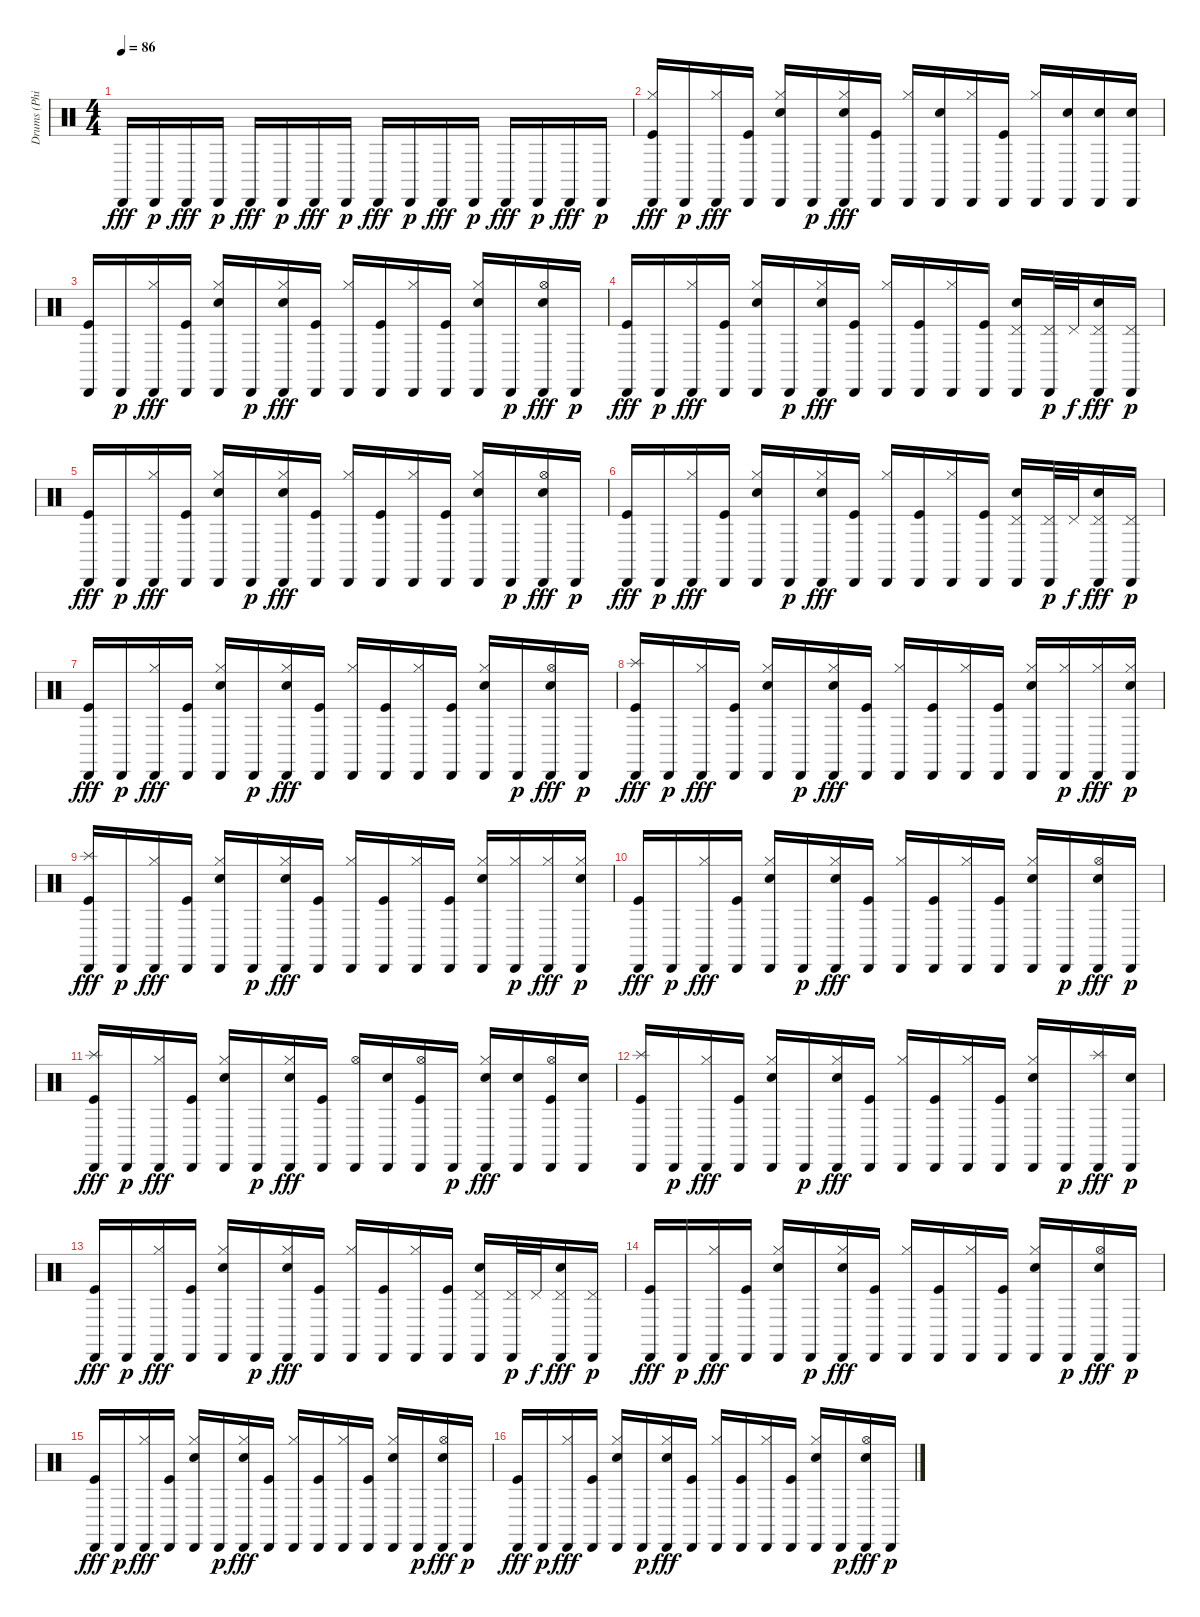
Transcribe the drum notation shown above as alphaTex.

\track ("Drums (Phil)" "Drums (Phi") {instrument percussion}
\staff {score}
\articulation defaults
\ts (4 4)
\tempo 86
\clef neutral
\ks c "Cabasa (hit)".16{dy fff} "Cabasa (hit)".16{dy p} "Cabasa (hit)".16{dy fff} "Cabasa (hit)".16{dy p} "Cabasa (hit)".16{dy fff} "Cabasa (hit)".16{dy p} "Cabasa (hit)".16{dy fff} "Cabasa (hit)".16{dy p} "Cabasa (hit)".16{dy fff} "Cabasa (hit)".16{dy p} "Cabasa (hit)".16{dy fff} "Cabasa (hit)".16{dy p} "Cabasa (hit)".16{dy fff} "Cabasa (hit)".16{dy p} "Cabasa (hit)".16{dy fff} "Cabasa (hit)".16{dy p}
|
("Cabasa (hit)" "Hi-Hat (closed)" "Kick (hit)").16{dy fff} "Cabasa (hit)".16{dy p} ("Cabasa (hit)" "Hi-Hat (closed)").16{dy fff} ("Cabasa (hit)" "Kick (hit)").16 ("Cabasa (hit)" "Hi-Hat (closed)" "Snare (hit) 2").16 "Cabasa (hit)".16{dy p} ("Cabasa (hit)" "Hi-Hat (closed)" "Snare (hit) 2").16{dy fff} ("Cabasa (hit)" "Kick (hit)").16 ("Cabasa (hit)" "Hi-Hat (closed)").16 ("Cabasa (hit)" "Snare (hit) 2").16 ("Cabasa (hit)" "Hi-Hat (closed)").16 ("Cabasa (hit)" "Kick (hit)").16 ("Cabasa (hit)" "Hi-Hat (closed)").16 ("Cabasa (hit)" "Snare (hit) 2").16 ("Cabasa (hit)" "Snare (hit) 2").16 ("Cabasa (hit)" "Snare (hit) 2").16 |
("Cabasa (hit)" "Kick (hit)").16 "Cabasa (hit)".16{dy p} ("Cabasa (hit)" "Hi-Hat (closed)").16{dy fff} ("Cabasa (hit)" "Kick (hit)").16 ("Cabasa (hit)" "Hi-Hat (closed)" "Snare (hit) 2").16 "Cabasa (hit)".16{dy p} ("Cabasa (hit)" "Hi-Hat (closed)" "Snare (hit) 2").16{dy fff} ("Cabasa (hit)" "Kick (hit)").16 ("Cabasa (hit)" "Hi-Hat (closed)").16 ("Cabasa (hit)" "Kick (hit)").16 ("Cabasa (hit)" "Hi-Hat (closed)").16 ("Cabasa (hit)" "Kick (hit)").16 ("Cabasa (hit)" "Hi-Hat (closed)" "Snare (hit) 2").16 "Cabasa (hit)".16{dy p} ("Cabasa (hit)" "Hi-Hat (open)" "Snare (hit) 2").16{dy fff} "Cabasa (hit)".16{dy p} |
("Cabasa (hit)" "Kick (hit)").16{dy fff} "Cabasa (hit)".16{dy p} ("Cabasa (hit)" "Hi-Hat (closed)").16{dy fff} ("Cabasa (hit)" "Kick (hit)").16 ("Cabasa (hit)" "Hi-Hat (closed)" "Snare (hit) 2").16 "Cabasa (hit)".16{dy p} ("Cabasa (hit)" "Hi-Hat (closed)" "Snare (hit) 2").16{dy fff} ("Cabasa (hit)" "Kick (hit)").16 ("Cabasa (hit)" "Hi-Hat (closed)").16 ("Cabasa (hit)" "Kick (hit)").16 ("Cabasa (hit)" "Hi-Hat (closed)").16 ("Cabasa (hit)" "Kick (hit)").16 ("Cabasa (hit)" "Pedal Hi-Hat (hit)" "Snare (hit) 2").16 ("Cabasa (hit)" "Pedal Hi-Hat (hit)").32{dy p} "Pedal Hi-Hat (hit)".32{dy f} ("Cabasa (hit)" "Pedal Hi-Hat (hit)" "Snare (hit) 2").16{dy fff} ("Cabasa (hit)" "Pedal Hi-Hat (hit)").16{dy p} |
("Cabasa (hit)" "Kick (hit)").16{dy fff} "Cabasa (hit)".16{dy p} ("Cabasa (hit)" "Hi-Hat (closed)").16{dy fff} ("Cabasa (hit)" "Kick (hit)").16 ("Cabasa (hit)" "Hi-Hat (closed)" "Snare (hit) 2").16 "Cabasa (hit)".16{dy p} ("Cabasa (hit)" "Hi-Hat (closed)" "Snare (hit) 2").16{dy fff} ("Cabasa (hit)" "Kick (hit)").16 ("Cabasa (hit)" "Hi-Hat (closed)").16 ("Cabasa (hit)" "Kick (hit)").16 ("Cabasa (hit)" "Hi-Hat (closed)").16 ("Cabasa (hit)" "Kick (hit)").16 ("Cabasa (hit)" "Hi-Hat (closed)" "Snare (hit) 2").16 "Cabasa (hit)".16{dy p} ("Cabasa (hit)" "Hi-Hat (open)" "Snare (hit) 2").16{dy fff} "Cabasa (hit)".16{dy p} |
("Cabasa (hit)" "Kick (hit)").16{dy fff} "Cabasa (hit)".16{dy p} ("Cabasa (hit)" "Hi-Hat (closed)").16{dy fff} ("Cabasa (hit)" "Kick (hit)").16 ("Cabasa (hit)" "Hi-Hat (closed)" "Snare (hit) 2").16 "Cabasa (hit)".16{dy p} ("Cabasa (hit)" "Hi-Hat (closed)" "Snare (hit) 2").16{dy fff} ("Cabasa (hit)" "Kick (hit)").16 ("Cabasa (hit)" "Hi-Hat (closed)").16 ("Cabasa (hit)" "Kick (hit)").16 ("Cabasa (hit)" "Hi-Hat (closed)").16 ("Cabasa (hit)" "Kick (hit)").16 ("Cabasa (hit)" "Pedal Hi-Hat (hit)" "Snare (hit) 2").16 ("Cabasa (hit)" "Pedal Hi-Hat (hit)").32{dy p} "Pedal Hi-Hat (hit)".32{dy f} ("Cabasa (hit)" "Pedal Hi-Hat (hit)" "Snare (hit) 2").16{dy fff} ("Cabasa (hit)" "Pedal Hi-Hat (hit)").16{dy p} |
("Cabasa (hit)" "Kick (hit)").16{dy fff} "Cabasa (hit)".16{dy p} ("Cabasa (hit)" "Hi-Hat (closed)").16{dy fff} ("Cabasa (hit)" "Kick (hit)").16 ("Cabasa (hit)" "Hi-Hat (closed)" "Snare (hit) 2").16 "Cabasa (hit)".16{dy p} ("Cabasa (hit)" "Hi-Hat (closed)" "Snare (hit) 2").16{dy fff} ("Cabasa (hit)" "Kick (hit)").16 ("Cabasa (hit)" "Hi-Hat (closed)").16 ("Cabasa (hit)" "Kick (hit)").16 ("Cabasa (hit)" "Hi-Hat (closed)").16 ("Cabasa (hit)" "Kick (hit)").16 ("Cabasa (hit)" "Hi-Hat (closed)" "Snare (hit) 2").16 "Cabasa (hit)".16{dy p} ("Cabasa (hit)" "Hi-Hat (open)" "Snare (hit) 2").16{dy fff} "Cabasa (hit)".16{dy p} |
("Cabasa (hit)" "Splash (hit)" "Kick (hit)").16{dy fff} "Cabasa (hit)".16{dy p} ("Cabasa (hit)" "Hi-Hat (closed)").16{dy fff} ("Cabasa (hit)" "Kick (hit)").16 ("Cabasa (hit)" "Hi-Hat (closed)" "Snare (hit) 2").16 "Cabasa (hit)".16{dy p} ("Cabasa (hit)" "Hi-Hat (closed)" "Snare (hit) 2").16{dy fff} ("Cabasa (hit)" "Kick (hit)").16 ("Cabasa (hit)" "Hi-Hat (closed)").16 ("Cabasa (hit)" "Kick (hit)").16 ("Cabasa (hit)" "Hi-Hat (closed)").16 ("Cabasa (hit)" "Kick (hit)").16 ("Cabasa (hit)" "Hi-Hat (closed)" "Snare (hit) 2").16 ("Cabasa (hit)" "Hi-Hat (closed)").16{dy p} ("Cabasa (hit)" "Hi-Hat (closed)").16{dy fff} ("Cabasa (hit)" "Hi-Hat (closed)" "Snare (hit) 2").16{dy p} |
("Cabasa (hit)" "Splash (hit)" "Kick (hit)").16{dy fff} "Cabasa (hit)".16{dy p} ("Cabasa (hit)" "Hi-Hat (closed)").16{dy fff} ("Cabasa (hit)" "Kick (hit)").16 ("Cabasa (hit)" "Hi-Hat (closed)" "Snare (hit) 2").16 "Cabasa (hit)".16{dy p} ("Cabasa (hit)" "Hi-Hat (closed)" "Snare (hit) 2").16{dy fff} ("Cabasa (hit)" "Kick (hit)").16 ("Cabasa (hit)" "Hi-Hat (closed)").16 ("Cabasa (hit)" "Kick (hit)").16 ("Cabasa (hit)" "Hi-Hat (closed)").16 ("Cabasa (hit)" "Kick (hit)").16 ("Cabasa (hit)" "Hi-Hat (closed)" "Snare (hit) 2").16 ("Cabasa (hit)" "Hi-Hat (closed)").16{dy p} ("Cabasa (hit)" "Hi-Hat (closed)").16{dy fff} ("Cabasa (hit)" "Hi-Hat (closed)" "Snare (hit) 2").16{dy p} |
("Cabasa (hit)" "Kick (hit)").16{dy fff} "Cabasa (hit)".16{dy p} ("Cabasa (hit)" "Hi-Hat (closed)").16{dy fff} ("Cabasa (hit)" "Kick (hit)").16 ("Cabasa (hit)" "Hi-Hat (closed)" "Snare (hit) 2").16 "Cabasa (hit)".16{dy p} ("Cabasa (hit)" "Hi-Hat (closed)" "Snare (hit) 2").16{dy fff} ("Cabasa (hit)" "Kick (hit)").16 ("Cabasa (hit)" "Hi-Hat (closed)").16 ("Cabasa (hit)" "Kick (hit)").16 ("Cabasa (hit)" "Hi-Hat (closed)").16 ("Cabasa (hit)" "Kick (hit)").16 ("Cabasa (hit)" "Hi-Hat (closed)" "Snare (hit) 2").16 "Cabasa (hit)".16{dy p} ("Cabasa (hit)" "Hi-Hat (open)" "Snare (hit) 2").16{dy fff} "Cabasa (hit)".16{dy p} |
("Cabasa (hit)" "Splash (hit)" "Kick (hit)").16{dy fff} "Cabasa (hit)".16{dy p} ("Cabasa (hit)" "Hi-Hat (closed)").16{dy fff} ("Cabasa (hit)" "Kick (hit)").16 ("Cabasa (hit)" "Hi-Hat (closed)" "Snare (hit) 2").16 "Cabasa (hit)".16{dy p} ("Cabasa (hit)" "Hi-Hat (closed)" "Snare (hit) 2").16{dy fff} ("Cabasa (hit)" "Kick (hit)").16 ("Cabasa (hit)" "Hi-Hat (open)").16 ("Cabasa (hit)" "Snare (hit) 2").16 ("Cabasa (hit)" "Hi-Hat (open)" "Kick (hit)").16 "Cabasa (hit)".16{dy p} ("Cabasa (hit)" "Hi-Hat (closed)" "Snare (hit) 2").16{dy fff} ("Cabasa (hit)" "Snare (hit) 2").16 ("Cabasa (hit)" "Hi-Hat (open)" "Kick (hit)").16 ("Cabasa (hit)" "Snare (hit) 2").16 |
("Cabasa (hit)" "Splash (hit)" "Kick (hit)").16 "Cabasa (hit)".16{dy p} ("Cabasa (hit)" "Hi-Hat (closed)").16{dy fff} ("Cabasa (hit)" "Kick (hit)").16 ("Cabasa (hit)" "Hi-Hat (closed)" "Snare (hit) 2").16 "Cabasa (hit)".16{dy p} ("Cabasa (hit)" "Hi-Hat (closed)" "Snare (hit) 2").16{dy fff} ("Cabasa (hit)" "Kick (hit)").16 ("Cabasa (hit)" "Hi-Hat (closed)").16 ("Cabasa (hit)" "Kick (hit)").16 ("Cabasa (hit)" "Hi-Hat (closed)").16 ("Cabasa (hit)" "Kick (hit)").16 ("Cabasa (hit)" "Hi-Hat (closed)" "Snare (hit) 2").16 "Cabasa (hit)".16{dy p} ("Cabasa (hit)" "Splash (hit)").16{dy fff} ("Cabasa (hit)" "Snare (hit) 2").16{dy p} |
("Cabasa (hit)" "Kick (hit)").16{dy fff} "Cabasa (hit)".16{dy p} ("Cabasa (hit)" "Hi-Hat (closed)").16{dy fff} ("Cabasa (hit)" "Kick (hit)").16 ("Cabasa (hit)" "Hi-Hat (closed)" "Snare (hit) 2").16 "Cabasa (hit)".16{dy p} ("Cabasa (hit)" "Hi-Hat (closed)" "Snare (hit) 2").16{dy fff} ("Cabasa (hit)" "Kick (hit)").16 ("Cabasa (hit)" "Hi-Hat (closed)").16 ("Cabasa (hit)" "Kick (hit)").16 ("Cabasa (hit)" "Hi-Hat (closed)").16 ("Cabasa (hit)" "Kick (hit)").16 ("Cabasa (hit)" "Pedal Hi-Hat (hit)" "Snare (hit) 2").16 ("Cabasa (hit)" "Pedal Hi-Hat (hit)").32{dy p} "Pedal Hi-Hat (hit)".32{dy f} ("Cabasa (hit)" "Pedal Hi-Hat (hit)" "Snare (hit) 2").16{dy fff} ("Cabasa (hit)" "Pedal Hi-Hat (hit)").16{dy p} |
("Cabasa (hit)" "Kick (hit)").16{dy fff} "Cabasa (hit)".16{dy p} ("Cabasa (hit)" "Hi-Hat (closed)").16{dy fff} ("Cabasa (hit)" "Kick (hit)").16 ("Cabasa (hit)" "Hi-Hat (closed)" "Snare (hit) 2").16 "Cabasa (hit)".16{dy p} ("Cabasa (hit)" "Hi-Hat (closed)" "Snare (hit) 2").16{dy fff} ("Cabasa (hit)" "Kick (hit)").16 ("Cabasa (hit)" "Hi-Hat (closed)").16 ("Cabasa (hit)" "Kick (hit)").16 ("Cabasa (hit)" "Hi-Hat (closed)").16 ("Cabasa (hit)" "Kick (hit)").16 ("Cabasa (hit)" "Hi-Hat (closed)" "Snare (hit) 2").16 "Cabasa (hit)".16{dy p} ("Cabasa (hit)" "Hi-Hat (open)" "Snare (hit) 2").16{dy fff} "Cabasa (hit)".16{dy p} |
("Cabasa (hit)" "Kick (hit)").16{dy fff} "Cabasa (hit)".16{dy p} ("Cabasa (hit)" "Hi-Hat (closed)").16{dy fff} ("Cabasa (hit)" "Kick (hit)").16 ("Cabasa (hit)" "Hi-Hat (closed)" "Snare (hit) 2").16 "Cabasa (hit)".16{dy p} ("Cabasa (hit)" "Hi-Hat (closed)" "Snare (hit) 2").16{dy fff} ("Cabasa (hit)" "Kick (hit)").16 ("Cabasa (hit)" "Hi-Hat (closed)").16 ("Cabasa (hit)" "Kick (hit)").16 ("Cabasa (hit)" "Hi-Hat (closed)").16 ("Cabasa (hit)" "Kick (hit)").16 ("Cabasa (hit)" "Hi-Hat (closed)" "Snare (hit) 2").16 "Cabasa (hit)".16{dy p} ("Cabasa (hit)" "Hi-Hat (open)" "Snare (hit) 2").16{dy fff} "Cabasa (hit)".16{dy p} |
("Cabasa (hit)" "Kick (hit)").16{dy fff} "Cabasa (hit)".16{dy p} ("Cabasa (hit)" "Hi-Hat (closed)").16{dy fff} ("Cabasa (hit)" "Kick (hit)").16 ("Cabasa (hit)" "Hi-Hat (closed)" "Snare (hit) 2").16 "Cabasa (hit)".16{dy p} ("Cabasa (hit)" "Hi-Hat (closed)" "Snare (hit) 2").16{dy fff} ("Cabasa (hit)" "Kick (hit)").16 ("Cabasa (hit)" "Hi-Hat (closed)").16 ("Cabasa (hit)" "Kick (hit)").16 ("Cabasa (hit)" "Hi-Hat (closed)").16 ("Cabasa (hit)" "Kick (hit)").16 ("Cabasa (hit)" "Hi-Hat (closed)" "Snare (hit) 2").16 "Cabasa (hit)".16{dy p} ("Cabasa (hit)" "Hi-Hat (open)" "Snare (hit) 2").16{dy fff} "Cabasa (hit)".16{dy p}
